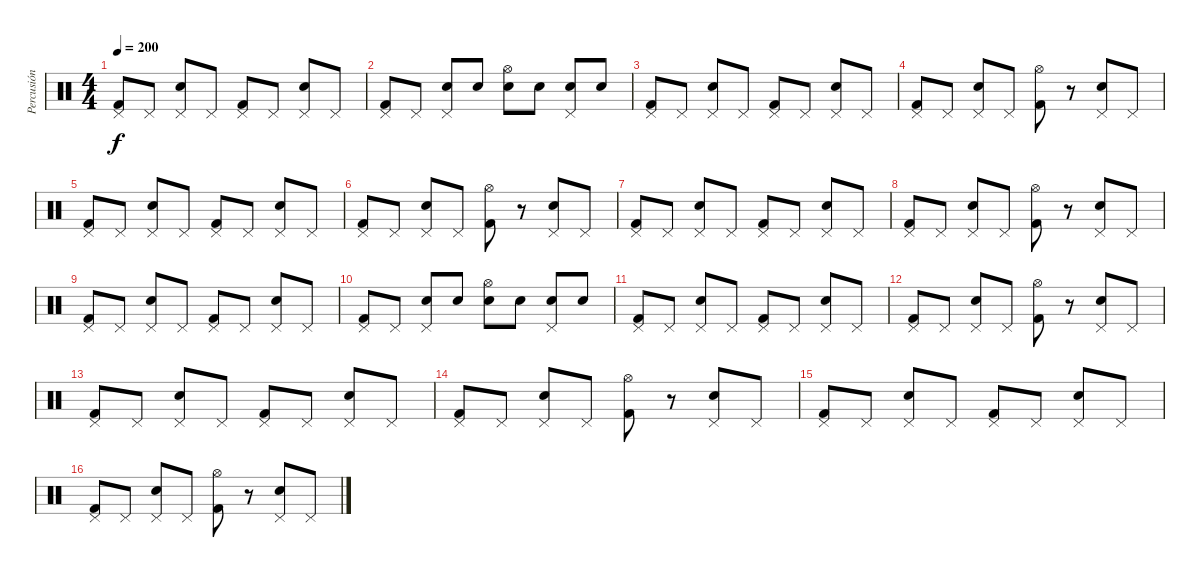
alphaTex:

\track ("Percusión" "Percusión") {instrument percussion}
\staff {score}
\articulation defaults
\ts (4 4)
\tempo 200
\clef neutral
\ks c
("Kick (hit) 2" "Pedal Hi-Hat (hit)").8{dy f} "Pedal Hi-Hat (hit)".8 ("Electric Snare (hit)" "Pedal Hi-Hat (hit)").8 "Pedal Hi-Hat (hit)".8 ("Kick (hit) 2" "Pedal Hi-Hat (hit)").8 "Pedal Hi-Hat (hit)".8 ("Electric Snare (hit)" "Pedal Hi-Hat (hit)").8 "Pedal Hi-Hat (hit)".8 |
("Kick (hit) 2" "Pedal Hi-Hat (hit)").8 "Pedal Hi-Hat (hit)".8 ("Electric Snare (hit)" "Pedal Hi-Hat (hit)").8 "Electric Snare (hit)".8 ("Electric Snare (hit)" "Hi-Hat (open)").8 "Electric Snare (hit)".8 ("Electric Snare (hit)" "Pedal Hi-Hat (hit)").8 "Electric Snare (hit)".8 |
("Kick (hit) 2" "Pedal Hi-Hat (hit)").8 "Pedal Hi-Hat (hit)".8 ("Electric Snare (hit)" "Pedal Hi-Hat (hit)").8 "Pedal Hi-Hat (hit)".8 ("Kick (hit) 2" "Pedal Hi-Hat (hit)").8 "Pedal Hi-Hat (hit)".8 ("Electric Snare (hit)" "Pedal Hi-Hat (hit)").8 "Pedal Hi-Hat (hit)".8 |
("Kick (hit) 2" "Pedal Hi-Hat (hit)").8 "Pedal Hi-Hat (hit)".8 ("Electric Snare (hit)" "Pedal Hi-Hat (hit)").8 "Pedal Hi-Hat (hit)".8 ("Kick (hit) 2" "Hi-Hat (open)").8 r.8 ("Electric Snare (hit)" "Pedal Hi-Hat (hit)").8 "Pedal Hi-Hat (hit)".8 |
("Kick (hit) 2" "Pedal Hi-Hat (hit)").8 "Pedal Hi-Hat (hit)".8 ("Electric Snare (hit)" "Pedal Hi-Hat (hit)").8 "Pedal Hi-Hat (hit)".8 ("Kick (hit) 2" "Pedal Hi-Hat (hit)").8 "Pedal Hi-Hat (hit)".8 ("Electric Snare (hit)" "Pedal Hi-Hat (hit)").8 "Pedal Hi-Hat (hit)".8 |
("Kick (hit) 2" "Pedal Hi-Hat (hit)").8 "Pedal Hi-Hat (hit)".8 ("Electric Snare (hit)" "Pedal Hi-Hat (hit)").8 "Pedal Hi-Hat (hit)".8 ("Kick (hit) 2" "Hi-Hat (open)").8 r.8 ("Electric Snare (hit)" "Pedal Hi-Hat (hit)").8 "Pedal Hi-Hat (hit)".8 |
("Kick (hit) 2" "Pedal Hi-Hat (hit)").8 "Pedal Hi-Hat (hit)".8 ("Electric Snare (hit)" "Pedal Hi-Hat (hit)").8 "Pedal Hi-Hat (hit)".8 ("Kick (hit) 2" "Pedal Hi-Hat (hit)").8 "Pedal Hi-Hat (hit)".8 ("Electric Snare (hit)" "Pedal Hi-Hat (hit)").8 "Pedal Hi-Hat (hit)".8 |
("Kick (hit) 2" "Pedal Hi-Hat (hit)").8 "Pedal Hi-Hat (hit)".8 ("Electric Snare (hit)" "Pedal Hi-Hat (hit)").8 "Pedal Hi-Hat (hit)".8 ("Kick (hit) 2" "Hi-Hat (open)").8 r.8 ("Electric Snare (hit)" "Pedal Hi-Hat (hit)").8 "Pedal Hi-Hat (hit)".8 |
("Kick (hit) 2" "Pedal Hi-Hat (hit)").8 "Pedal Hi-Hat (hit)".8 ("Electric Snare (hit)" "Pedal Hi-Hat (hit)").8 "Pedal Hi-Hat (hit)".8 ("Kick (hit) 2" "Pedal Hi-Hat (hit)").8 "Pedal Hi-Hat (hit)".8 ("Electric Snare (hit)" "Pedal Hi-Hat (hit)").8 "Pedal Hi-Hat (hit)".8 |
("Kick (hit) 2" "Pedal Hi-Hat (hit)").8 "Pedal Hi-Hat (hit)".8 ("Electric Snare (hit)" "Pedal Hi-Hat (hit)").8 "Electric Snare (hit)".8 ("Electric Snare (hit)" "Hi-Hat (open)").8 "Electric Snare (hit)".8 ("Electric Snare (hit)" "Pedal Hi-Hat (hit)").8 "Electric Snare (hit)".8 |
("Kick (hit) 2" "Pedal Hi-Hat (hit)").8 "Pedal Hi-Hat (hit)".8 ("Electric Snare (hit)" "Pedal Hi-Hat (hit)").8 "Pedal Hi-Hat (hit)".8 ("Kick (hit) 2" "Pedal Hi-Hat (hit)").8 "Pedal Hi-Hat (hit)".8 ("Electric Snare (hit)" "Pedal Hi-Hat (hit)").8 "Pedal Hi-Hat (hit)".8 |
("Kick (hit) 2" "Pedal Hi-Hat (hit)").8 "Pedal Hi-Hat (hit)".8 ("Electric Snare (hit)" "Pedal Hi-Hat (hit)").8 "Pedal Hi-Hat (hit)".8 ("Kick (hit) 2" "Hi-Hat (open)").8 r.8 ("Electric Snare (hit)" "Pedal Hi-Hat (hit)").8 "Pedal Hi-Hat (hit)".8 |
("Kick (hit) 2" "Pedal Hi-Hat (hit)").8 "Pedal Hi-Hat (hit)".8 ("Electric Snare (hit)" "Pedal Hi-Hat (hit)").8 "Pedal Hi-Hat (hit)".8 ("Kick (hit) 2" "Pedal Hi-Hat (hit)").8 "Pedal Hi-Hat (hit)".8 ("Electric Snare (hit)" "Pedal Hi-Hat (hit)").8 "Pedal Hi-Hat (hit)".8 |
("Kick (hit) 2" "Pedal Hi-Hat (hit)").8 "Pedal Hi-Hat (hit)".8 ("Electric Snare (hit)" "Pedal Hi-Hat (hit)").8 "Pedal Hi-Hat (hit)".8 ("Kick (hit) 2" "Hi-Hat (open)").8 r.8 ("Electric Snare (hit)" "Pedal Hi-Hat (hit)").8 "Pedal Hi-Hat (hit)".8 |
("Kick (hit) 2" "Pedal Hi-Hat (hit)").8 "Pedal Hi-Hat (hit)".8 ("Electric Snare (hit)" "Pedal Hi-Hat (hit)").8 "Pedal Hi-Hat (hit)".8 ("Kick (hit) 2" "Pedal Hi-Hat (hit)").8 "Pedal Hi-Hat (hit)".8 ("Electric Snare (hit)" "Pedal Hi-Hat (hit)").8 "Pedal Hi-Hat (hit)".8 |
("Kick (hit) 2" "Pedal Hi-Hat (hit)").8 "Pedal Hi-Hat (hit)".8 ("Electric Snare (hit)" "Pedal Hi-Hat (hit)").8 "Pedal Hi-Hat (hit)".8 ("Kick (hit) 2" "Hi-Hat (open)").8 r.8 ("Electric Snare (hit)" "Pedal Hi-Hat (hit)").8 "Pedal Hi-Hat (hit)".8
